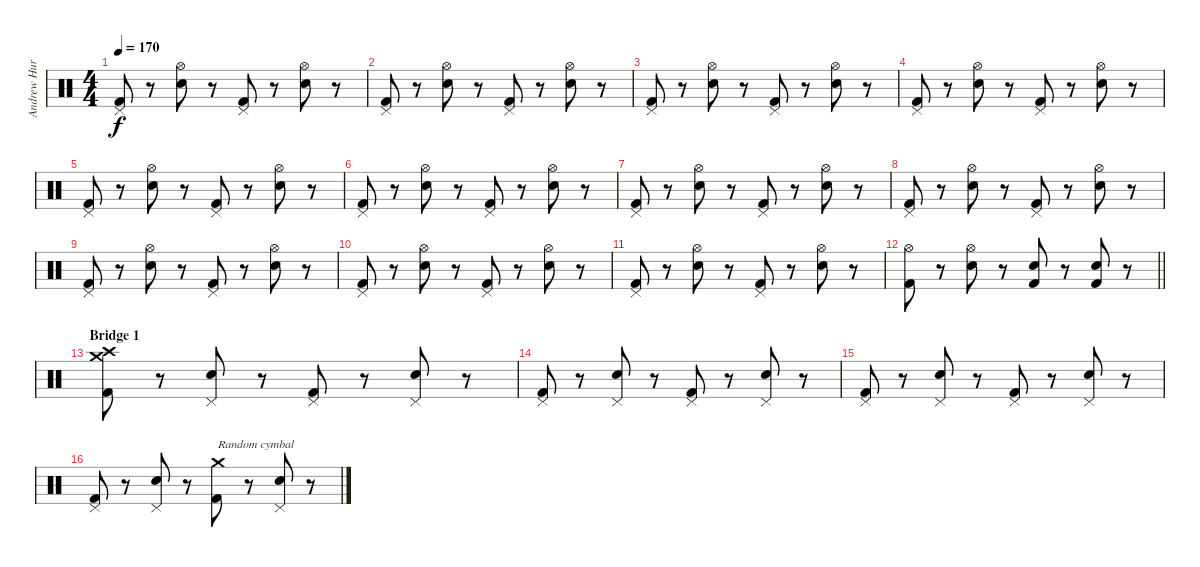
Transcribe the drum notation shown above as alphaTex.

\track ("Andrew Hurley (Drums)" "Andrew Hur") {instrument percussion}
\staff {score}
\articulation defaults
\ts (4 4)
\tempo 170
\clef neutral
\ks c
("Pedal Hi-Hat (hit)" "Kick (hit) 2").8{dy f} r.8 ("Hi-Hat (open)" "Electric Snare (hit)").8 r.8 ("Pedal Hi-Hat (hit)" "Kick (hit) 2").8 r.8 ("Hi-Hat (open)" "Electric Snare (hit)").8 r.8 |
("Pedal Hi-Hat (hit)" "Kick (hit) 2").8 r.8 ("Hi-Hat (open)" "Electric Snare (hit)").8 r.8 ("Pedal Hi-Hat (hit)" "Kick (hit) 2").8 r.8 ("Hi-Hat (open)" "Electric Snare (hit)").8 r.8 |
("Pedal Hi-Hat (hit)" "Kick (hit) 2").8 r.8 ("Hi-Hat (open)" "Electric Snare (hit)").8 r.8 ("Pedal Hi-Hat (hit)" "Kick (hit) 2").8 r.8 ("Hi-Hat (open)" "Electric Snare (hit)").8 r.8 |
("Pedal Hi-Hat (hit)" "Kick (hit) 2").8 r.8 ("Hi-Hat (open)" "Electric Snare (hit)").8 r.8 ("Pedal Hi-Hat (hit)" "Kick (hit) 2").8 r.8 ("Hi-Hat (open)" "Electric Snare (hit)").8 r.8 |
("Pedal Hi-Hat (hit)" "Kick (hit) 2").8 r.8 ("Hi-Hat (open)" "Electric Snare (hit)").8 r.8 ("Pedal Hi-Hat (hit)" "Kick (hit) 2").8 r.8 ("Hi-Hat (open)" "Electric Snare (hit)").8 r.8 |
("Pedal Hi-Hat (hit)" "Kick (hit) 2").8 r.8 ("Hi-Hat (open)" "Electric Snare (hit)").8 r.8 ("Pedal Hi-Hat (hit)" "Kick (hit) 2").8 r.8 ("Hi-Hat (open)" "Electric Snare (hit)").8 r.8 |
("Pedal Hi-Hat (hit)" "Kick (hit) 2").8 r.8 ("Hi-Hat (open)" "Electric Snare (hit)").8 r.8 ("Pedal Hi-Hat (hit)" "Kick (hit) 2").8 r.8 ("Hi-Hat (open)" "Electric Snare (hit)").8 r.8 |
("Pedal Hi-Hat (hit)" "Kick (hit) 2").8 r.8 ("Hi-Hat (open)" "Electric Snare (hit)").8 r.8 ("Pedal Hi-Hat (hit)" "Kick (hit) 2").8 r.8 ("Hi-Hat (open)" "Electric Snare (hit)").8 r.8 |
("Pedal Hi-Hat (hit)" "Kick (hit) 2").8 r.8 ("Hi-Hat (open)" "Electric Snare (hit)").8 r.8 ("Pedal Hi-Hat (hit)" "Kick (hit) 2").8 r.8 ("Hi-Hat (open)" "Electric Snare (hit)").8 r.8 |
("Pedal Hi-Hat (hit)" "Kick (hit) 2").8 r.8 ("Hi-Hat (open)" "Electric Snare (hit)").8 r.8 ("Pedal Hi-Hat (hit)" "Kick (hit) 2").8 r.8 ("Hi-Hat (open)" "Electric Snare (hit)").8 r.8 |
("Pedal Hi-Hat (hit)" "Kick (hit) 2").8 r.8 ("Hi-Hat (open)" "Electric Snare (hit)").8 r.8 ("Pedal Hi-Hat (hit)" "Kick (hit) 2").8 r.8 ("Hi-Hat (open)" "Electric Snare (hit)").8 r.8 |
\barLineRight lightlight
("Hi-Hat (open)" "Kick (hit) 2").8 r.8 ("Hi-Hat (open)" "Electric Snare (hit)").8 r.8 ("Electric Snare (hit)" "Kick (hit) 2").8 r.8 ("Electric Snare (hit)" "Kick (hit) 2").8 r.8 |
\section ("" "Bridge 1")
("Crash high (hit)" "Crash medium (hit)" "Kick (hit) 2").8 r.8 ("Pedal Hi-Hat (hit)" "Electric Snare (hit)").8 r.8 ("Pedal Hi-Hat (hit)" "Kick (hit) 2").8 r.8 ("Pedal Hi-Hat (hit)" "Electric Snare (hit)").8 r.8 |
("Pedal Hi-Hat (hit)" "Kick (hit) 2").8 r.8 ("Pedal Hi-Hat (hit)" "Electric Snare (hit)").8 r.8 ("Pedal Hi-Hat (hit)" "Kick (hit) 2").8 r.8 ("Pedal Hi-Hat (hit)" "Electric Snare (hit)").8 r.8 |
("Pedal Hi-Hat (hit)" "Kick (hit) 2").8 r.8 ("Pedal Hi-Hat (hit)" "Electric Snare (hit)").8 r.8 ("Pedal Hi-Hat (hit)" "Kick (hit) 2").8 r.8 ("Pedal Hi-Hat (hit)" "Electric Snare (hit)").8 r.8 |
("Pedal Hi-Hat (hit)" "Kick (hit) 2").8 r.8 ("Pedal Hi-Hat (hit)" "Electric Snare (hit)").8 r.8 ("Crash medium (hit)" "Kick (hit) 2").8{txt "Random cymbal"} r.8 ("Pedal Hi-Hat (hit)" "Electric Snare (hit)").8 r.8
